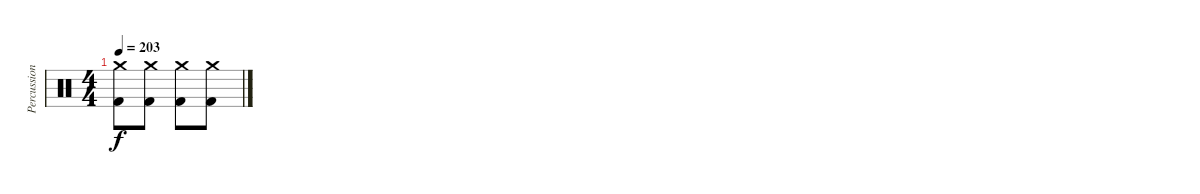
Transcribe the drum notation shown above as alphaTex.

\track ("Percussion" "Percussion") {instrument percussion}
\staff {score}
\articulation defaults
\ts (4 4)
\tempo 203
\clef neutral
\ks c
("Crash medium (hit)" "Kick (hit) 2").8{dy f} ("Crash medium (hit)" "Kick (hit) 2").8 ("Crash medium (hit)" "Kick (hit) 2").8 ("Crash medium (hit)" "Kick (hit) 2").8
